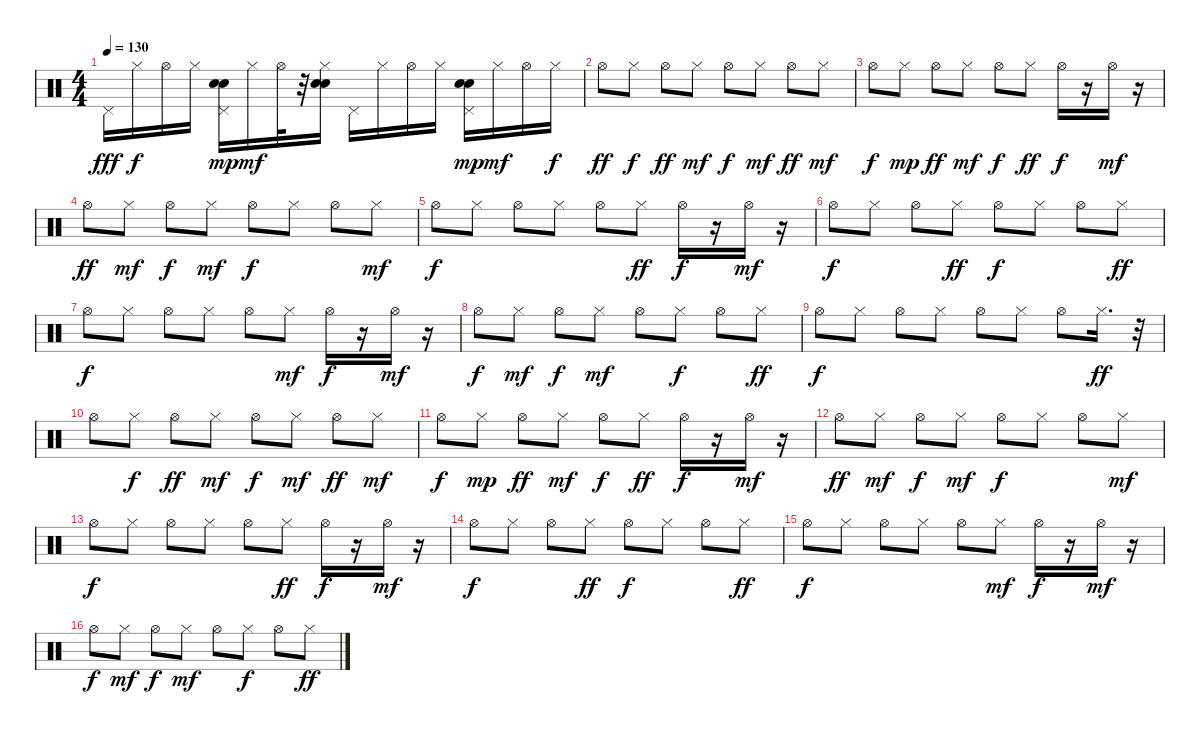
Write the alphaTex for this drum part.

\track "" {instrument percussion}
\staff {score}
\articulation defaults
\ts (4 4)
\tempo 130
\clef neutral
\ks c "Pedal Hi-Hat (hit)".16{dy fff} "Hi-Hat (closed)".16{dy f} "Hi-Hat (open)".16 "Hi-Hat (closed)".16
("Pedal Hi-Hat (hit)" "Electric Snare (hit)" "Hand Clap (hit)").16{dy mp} "Hi-Hat (closed)".16{dy mf} "Hi-Hat (open)".32 r.32 ("Hand Clap (hit)" "Electric Snare (hit)" "Hi-Hat (closed)").16 "Pedal Hi-Hat (hit)".16 "Hi-Hat (closed)".16 "Hi-Hat (open)".16 "Hi-Hat (closed)".16 ("Pedal Hi-Hat (hit)" "Electric Snare (hit)" "Hand Clap (hit)").16{dy mp} "Hi-Hat (closed)".16{dy mf} "Hi-Hat (open)".16 "Hi-Hat (closed)".16{dy f} |
"Hi-Hat (open)".8{dy ff} "Hi-Hat (closed)".8{dy f} "Hi-Hat (open)".8{dy ff} "Hi-Hat (closed)".8{dy mf} "Hi-Hat (open)".8{dy f} "Hi-Hat (closed)".8{dy mf} "Hi-Hat (open)".8{dy ff} "Hi-Hat (closed)".8{dy mf} |
"Hi-Hat (open)".8{dy f} "Hi-Hat (closed)".8{dy mp} "Hi-Hat (open)".8{dy ff} "Hi-Hat (closed)".8{dy mf} "Hi-Hat (open)".8{dy f} "Hi-Hat (closed)".8{dy ff} "Hi-Hat (open)".16{dy f} r.16 "Hi-Hat (open)".16{dy mf} r.16 |
"Hi-Hat (open)".8{dy ff} "Hi-Hat (closed)".8{dy mf} "Hi-Hat (open)".8{dy f} "Hi-Hat (closed)".8{dy mf} "Hi-Hat (open)".8{dy f} "Hi-Hat (closed)".8 "Hi-Hat (open)".8 "Hi-Hat (closed)".8{dy mf} |
"Hi-Hat (open)".8{dy f} "Hi-Hat (closed)".8 "Hi-Hat (open)".8 "Hi-Hat (closed)".8 "Hi-Hat (open)".8 "Hi-Hat (closed)".8{dy ff} "Hi-Hat (open)".16{dy f} r.16 "Hi-Hat (open)".16{dy mf} r.16 |
"Hi-Hat (open)".8{dy f} "Hi-Hat (closed)".8 "Hi-Hat (open)".8 "Hi-Hat (closed)".8{dy ff} "Hi-Hat (open)".8{dy f} "Hi-Hat (closed)".8 "Hi-Hat (open)".8 "Hi-Hat (closed)".8{dy ff} |
"Hi-Hat (open)".8{dy f} "Hi-Hat (closed)".8 "Hi-Hat (open)".8 "Hi-Hat (closed)".8 "Hi-Hat (open)".8 "Hi-Hat (closed)".8{dy mf} "Hi-Hat (open)".16{dy f} r.16 "Hi-Hat (open)".16{dy mf} r.16 |
"Hi-Hat (open)".8{dy f} "Hi-Hat (closed)".8{dy mf} "Hi-Hat (open)".8{dy f} "Hi-Hat (closed)".8{dy mf} "Hi-Hat (open)".8 "Hi-Hat (closed)".8{dy f} "Hi-Hat (open)".8 "Hi-Hat (closed)".8{dy ff} |
"Hi-Hat (open)".8{dy f} "Hi-Hat (closed)".8 "Hi-Hat (open)".8 "Hi-Hat (closed)".8 "Hi-Hat (open)".8 "Hi-Hat (closed)".8 "Hi-Hat (open)".8 "Hi-Hat (closed)".16{d dy ff} r.32 |
"Hi-Hat (open)".8 "Hi-Hat (closed)".8{dy f} "Hi-Hat (open)".8{dy ff} "Hi-Hat (closed)".8{dy mf} "Hi-Hat (open)".8{dy f} "Hi-Hat (closed)".8{dy mf} "Hi-Hat (open)".8{dy ff} "Hi-Hat (closed)".8{dy mf} |
"Hi-Hat (open)".8{dy f} "Hi-Hat (closed)".8{dy mp} "Hi-Hat (open)".8{dy ff} "Hi-Hat (closed)".8{dy mf} "Hi-Hat (open)".8{dy f} "Hi-Hat (closed)".8{dy ff} "Hi-Hat (open)".16{dy f} r.16 "Hi-Hat (open)".16{dy mf} r.16 |
"Hi-Hat (open)".8{dy ff} "Hi-Hat (closed)".8{dy mf} "Hi-Hat (open)".8{dy f} "Hi-Hat (closed)".8{dy mf} "Hi-Hat (open)".8{dy f} "Hi-Hat (closed)".8 "Hi-Hat (open)".8 "Hi-Hat (closed)".8{dy mf} |
"Hi-Hat (open)".8{dy f} "Hi-Hat (closed)".8 "Hi-Hat (open)".8 "Hi-Hat (closed)".8 "Hi-Hat (open)".8 "Hi-Hat (closed)".8{dy ff} "Hi-Hat (open)".16{dy f} r.16 "Hi-Hat (open)".16{dy mf} r.16 |
"Hi-Hat (open)".8{dy f} "Hi-Hat (closed)".8 "Hi-Hat (open)".8 "Hi-Hat (closed)".8{dy ff} "Hi-Hat (open)".8{dy f} "Hi-Hat (closed)".8 "Hi-Hat (open)".8 "Hi-Hat (closed)".8{dy ff} |
"Hi-Hat (open)".8{dy f} "Hi-Hat (closed)".8 "Hi-Hat (open)".8 "Hi-Hat (closed)".8 "Hi-Hat (open)".8 "Hi-Hat (closed)".8{dy mf} "Hi-Hat (open)".16{dy f} r.16 "Hi-Hat (open)".16{dy mf} r.16 |
"Hi-Hat (open)".8{dy f} "Hi-Hat (closed)".8{dy mf} "Hi-Hat (open)".8{dy f} "Hi-Hat (closed)".8{dy mf} "Hi-Hat (open)".8 "Hi-Hat (closed)".8{dy f} "Hi-Hat (open)".8 "Hi-Hat (closed)".8{dy ff}
